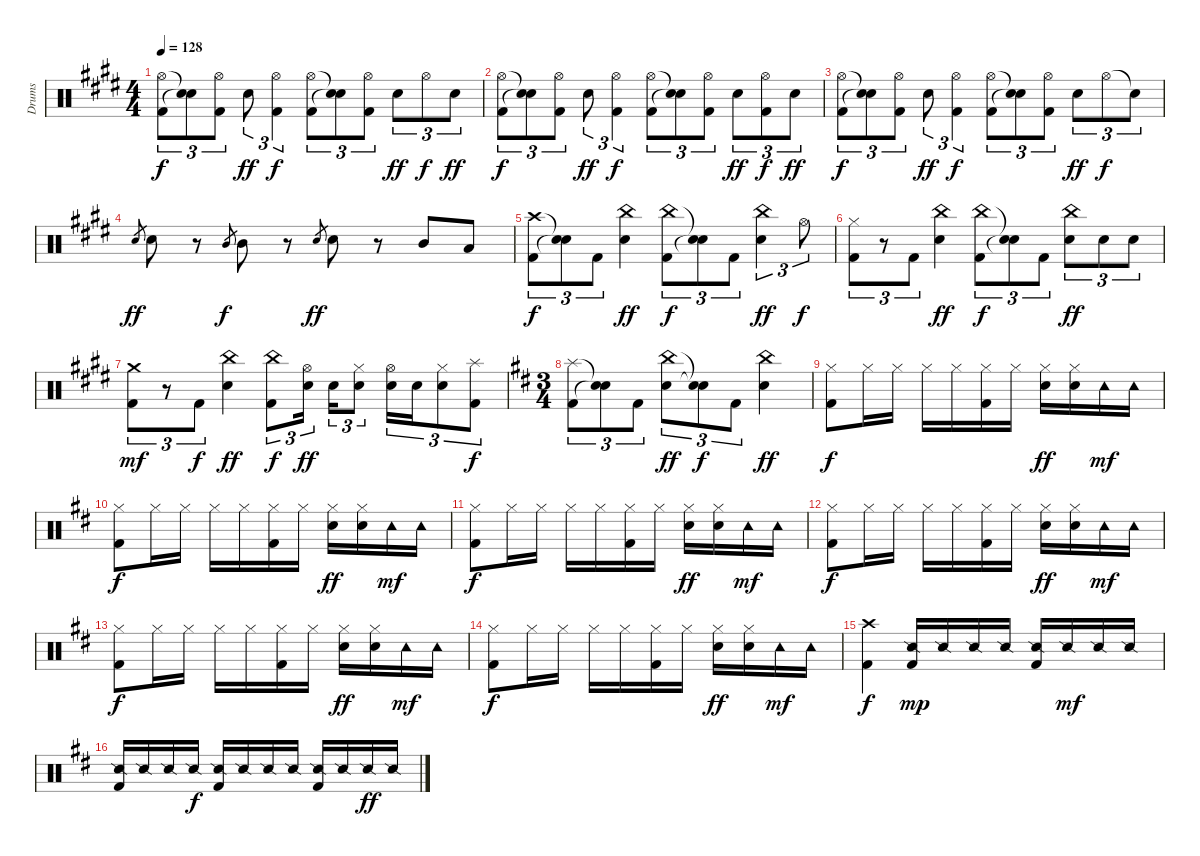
\track ("Drums" "Drums") {instrument percussion}
\staff {score}
\articulation defaults
\ts (4 4)
\tempo 128
\clef neutral
\ks e
("Kick (hit) 2" "Hi-Hat (open)").8{tu (3 2) dy f} ("Snare (hit)"{t} "Snare (hit)"{t}).8{tu (3 2)} ("Kick (hit) 2" "Hi-Hat (open)").8{tu (3 2)} "Electric Snare (hit)".8{tu (3 2) dy ff} ("Kick (hit) 2" "Hi-Hat (open)").4{tu (3 2) dy f} ("Kick (hit) 2" "Hi-Hat (open)").8{tu (3 2)} ("Snare (hit)"{t} "Snare (hit)"{t}).8{tu (3 2)} ("Kick (hit) 2" "Hi-Hat (open)").8{tu (3 2)} "Electric Snare (hit)".8{tu (3 2) dy ff} "Hi-Hat (open)".8{tu (3 2) dy f} "Electric Snare (hit)".8{tu (3 2) dy ff} |
("Kick (hit) 2" "Hi-Hat (open)").8{tu (3 2) dy f} ("Snare (hit)"{t} "Snare (hit)"{t}).8{tu (3 2)} ("Kick (hit) 2" "Hi-Hat (open)").8{tu (3 2)} "Electric Snare (hit)".8{tu (3 2) dy ff} ("Kick (hit) 2" "Hi-Hat (open)").4{tu (3 2) dy f} ("Kick (hit) 2" "Hi-Hat (open)").8{tu (3 2)} ("Snare (hit)"{t} "Snare (hit)"{t}).8{tu (3 2)} ("Kick (hit) 2" "Hi-Hat (open)").8{tu (3 2)} "Electric Snare (hit)".8{tu (3 2) dy ff} ("Kick (hit) 2" "Hi-Hat (open)").8{tu (3 2) dy f} "Electric Snare (hit)".8{tu (3 2) dy ff} |
("Kick (hit) 2" "Hi-Hat (open)").8{tu (3 2) dy f} ("Snare (hit)"{t} "Snare (hit)"{t}).8{tu (3 2)} ("Kick (hit) 2" "Hi-Hat (open)").8{tu (3 2)} "Electric Snare (hit)".8{tu (3 2) dy ff} ("Kick (hit) 2" "Hi-Hat (open)").4{tu (3 2) dy f} ("Kick (hit) 2" "Hi-Hat (open)").8{tu (3 2)} ("Snare (hit)"{t} "Snare (hit)"{t}).8{tu (3 2)} ("Kick (hit) 2" "Hi-Hat (open)").8{tu (3 2)} "Electric Snare (hit)".8{tu (3 2) dy ff} "Hi-Hat (open)".8{tu (3 2) dy f} "Snare (hit)"{t}.8{tu (3 2)} |
"Electric Snare (hit)".8{gr dy ff} "Electric Snare (hit)".8 r.8 "Mid Tom (hit)".8{gr dy f} "Mid Tom (hit)".8 r.8 "Electric Snare (hit)".8{gr dy ff} "Electric Snare (hit)".8 r.8 "Mid Tom (hit)".8 "Low Tom (hit)".8 |
("Kick (hit) 2" "Crash high (hit)").8{tu (3 2) dy f} ("Snare (hit)"{t} "Snare (hit)"{t}).8{tu (3 2)} "Kick (hit) 2".8{tu (3 2)} ("Electric Snare (hit)" "China (hit)").4{dy ff} ("Kick (hit) 2" "China (hit)").8{tu (3 2) dy f} ("Snare (hit)"{t} "Snare (hit)"{t}).8{tu (3 2)} "Kick (hit) 2".8{tu (3 2)} ("Electric Snare (hit)" "China (hit)").4{tu (3 2) dy ff} "Hi-Hat (open)".8{tu (3 2) dy f} |
("Kick (hit) 2" "Hi-Hat (closed)").8{tu (3 2)} r.8{tu (3 2)} "Kick (hit) 2".8{tu (3 2)} ("Electric Snare (hit)" "China (hit)").4{dy ff} ("Kick (hit) 2" "China (hit)").8{tu (3 2) dy f} ("Snare (hit)"{t} "Snare (hit)"{t}).8{tu (3 2)} "Kick (hit) 2".8{tu (3 2)} ("Electric Snare (hit)" "China (hit)").8{tu (3 2) dy ff} "Electric Snare (hit)".8{tu (3 2)} "Electric Snare (hit)".8{tu (3 2)} |
("Kick (hit) 2" "Crash medium (hit)").8{tu (3 2) dy mf} r.8{tu (3 2)} "Kick (hit) 2".8{tu (3 2) dy f} ("Electric Snare (hit)" "China (hit)").4{dy ff} ("Kick (hit) 2" "China (hit)").8{tu (3 2) dy f} ("Electric Snare (hit)" "Hi-Hat (open)").16{tu (3 2) dy ff} "Electric Snare (hit)".16{tu (3 2)} ("Electric Snare (hit)" "Hi-Hat (closed)").8{tu (3 2)} ("Electric Snare (hit)" "Hi-Hat (open)").16{tu (3 2)} "Electric Snare (hit)".16{tu (3 2)} ("Electric Snare (hit)" "Hi-Hat (closed)").8{tu (3 2)} ("Kick (hit) 2" "Splash (hit)").8{tu (3 2) dy f} |
\ts (3 4)
\ks d
("Kick (hit) 2" "Splash (hit)").8{tu (3 2)} ("Snare (hit)"{t} "Snare (hit)"{t}).8{tu (3 2)} "Kick (hit) 2".8{tu (3 2)} ("Electric Snare (hit)" "China (hit)").8{tu (3 2) dy ff} ("Snare (hit)"{t} "Snare (hit)"{t}).8{tu (3 2) dy f} "Kick (hit) 2".8{tu (3 2)} ("Electric Snare (hit)" "China (hit)").4{dy ff} |
("Kick (hit) 2" "Hi-Hat (closed)").8{dy f} "Hi-Hat (closed)".16 "Hi-Hat (closed)".16 "Hi-Hat (closed)".16 "Hi-Hat (closed)".16 ("Kick (hit) 2" "Hi-Hat (closed)").16 "Hi-Hat (closed)".16 ("Electric Snare (hit)" "Hi-Hat (closed)").16{dy ff} ("Electric Snare (hit)" "Hi-Hat (closed)").16 "Tambourine (hit)".16{dy mf} "Tambourine (hit)".16 |
("Kick (hit) 2" "Hi-Hat (closed)").8{dy f} "Hi-Hat (closed)".16 "Hi-Hat (closed)".16 "Hi-Hat (closed)".16 "Hi-Hat (closed)".16 ("Kick (hit) 2" "Hi-Hat (closed)").16 "Hi-Hat (closed)".16 ("Electric Snare (hit)" "Hi-Hat (closed)").16{dy ff} ("Electric Snare (hit)" "Hi-Hat (closed)").16 "Tambourine (hit)".16{dy mf} "Tambourine (hit)".16 |
("Kick (hit) 2" "Hi-Hat (closed)").8{dy f} "Hi-Hat (closed)".16 "Hi-Hat (closed)".16 "Hi-Hat (closed)".16 "Hi-Hat (closed)".16 ("Kick (hit) 2" "Hi-Hat (closed)").16 "Hi-Hat (closed)".16 ("Electric Snare (hit)" "Hi-Hat (closed)").16{dy ff} ("Electric Snare (hit)" "Hi-Hat (closed)").16 "Tambourine (hit)".16{dy mf} "Tambourine (hit)".16 |
("Kick (hit) 2" "Hi-Hat (closed)").8{dy f} "Hi-Hat (closed)".16 "Hi-Hat (closed)".16 "Hi-Hat (closed)".16 "Hi-Hat (closed)".16 ("Kick (hit) 2" "Hi-Hat (closed)").16 "Hi-Hat (closed)".16 ("Electric Snare (hit)" "Hi-Hat (closed)").16{dy ff} ("Electric Snare (hit)" "Hi-Hat (closed)").16 "Tambourine (hit)".16{dy mf} "Tambourine (hit)".16 |
("Kick (hit) 2" "Hi-Hat (closed)").8{dy f} "Hi-Hat (closed)".16 "Hi-Hat (closed)".16 "Hi-Hat (closed)".16 "Hi-Hat (closed)".16 ("Kick (hit) 2" "Hi-Hat (closed)").16 "Hi-Hat (closed)".16 ("Electric Snare (hit)" "Hi-Hat (closed)").16{dy ff} ("Electric Snare (hit)" "Hi-Hat (closed)").16 "Tambourine (hit)".16{dy mf} "Tambourine (hit)".16 |
("Kick (hit) 2" "Hi-Hat (closed)").8{dy f} "Hi-Hat (closed)".16 "Hi-Hat (closed)".16 "Hi-Hat (closed)".16 "Hi-Hat (closed)".16 ("Kick (hit) 2" "Hi-Hat (closed)").16 "Hi-Hat (closed)".16 ("Electric Snare (hit)" "Hi-Hat (closed)").16{dy ff} ("Electric Snare (hit)" "Hi-Hat (closed)").16 "Tambourine (hit)".16{dy mf} "Tambourine (hit)".16 |
("Kick (hit) 2" "Crash high (hit)").4{dy f} ("Kick (hit) 2" "Snare (side stick) 2").16{dy mp} "Snare (side stick) 2".16 "Snare (side stick) 2".16 "Snare (side stick) 2".16 ("Kick (hit) 2" "Snare (side stick) 2").16 "Snare (side stick) 2".16{dy mf} "Snare (side stick) 2".16 "Snare (side stick) 2".16 |
("Kick (hit) 2" "Snare (side stick) 2").16 "Snare (side stick) 2".16 "Snare (side stick) 2".16 "Snare (side stick) 2".16{dy f} ("Kick (hit) 2" "Snare (side stick) 2").16 "Snare (side stick) 2".16 "Snare (side stick) 2".16 "Snare (side stick) 2".16 ("Kick (hit) 2" "Snare (side stick) 2").16 "Snare (side stick) 2".16 "Snare (side stick) 2".16{dy ff} "Snare (side stick) 2".16
